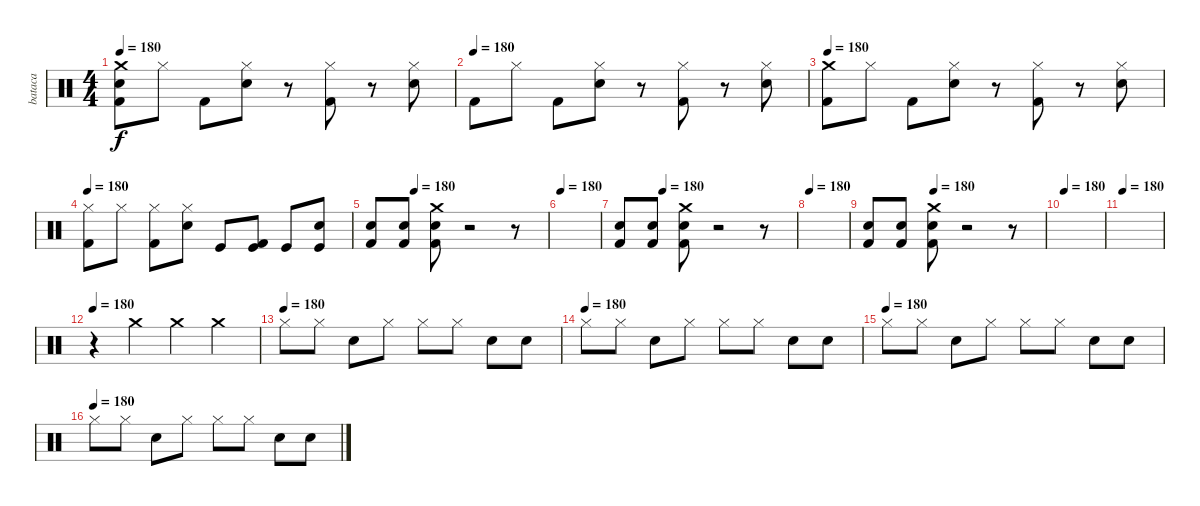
\track ("bataca" "bataca") {instrument percussion}
\staff {score}
\articulation defaults
\ts (4 4)
\tempo 180
\clef neutral
\ks c
("Crash medium (hit)" "Snare (hit) 2" "Kick (hit) 2").8{dy f} "Hi-Hat (closed)".8 "Kick (hit) 2".8 ("Hi-Hat (closed)" "Snare (hit) 2").8 r.8 ("Hi-Hat (closed)" "Kick (hit) 2").8 r.8 ("Hi-Hat (closed)" "Snare (hit) 2").8 |
\tempo (180)
"Kick (hit) 2".8 "Hi-Hat (closed)".8 "Kick (hit) 2".8 ("Hi-Hat (closed)" "Snare (hit) 2").8 r.8 ("Hi-Hat (closed)" "Kick (hit) 2").8 r.8 ("Hi-Hat (closed)" "Snare (hit) 2").8 |
\tempo 180
("Crash medium (hit)" "Kick (hit) 2").8 "Hi-Hat (closed)".8 "Kick (hit) 2".8 ("Hi-Hat (closed)" "Snare (hit) 2").8 r.8 ("Hi-Hat (closed)" "Kick (hit) 2").8 r.8 ("Hi-Hat (closed)" "Snare (hit) 2").8 |
\tempo 180
("Hi-Hat (closed)" "Kick (hit) 2").8 "Hi-Hat (closed)".8 ("Hi-Hat (closed)" "Kick (hit) 2").8 ("Hi-Hat (closed)" "Snare (hit) 2").8 "Kick (hit)".8 ("Kick (hit)" "Kick (hit) 2").8 "Kick (hit)".8 ("Kick (hit)" "Snare (hit) 2").8 |
\tempo (180 0.25)
("Snare (hit) 2" "Kick (hit) 2").8 ("Snare (hit) 2" "Kick (hit) 2").8 ("Crash medium (hit)" "Snare (hit) 2" "Kick (hit) 2").8 r.2 r.8 |
\tempo 180
|
\tempo (180 0.25)
("Snare (hit) 2" "Kick (hit) 2").8 ("Snare (hit) 2" "Kick (hit) 2").8 ("Crash medium (hit)" "Snare (hit) 2" "Kick (hit) 2").8 r.2 r.8 |
\tempo 180
|
\tempo (180 0.375)
("Snare (hit) 2" "Kick (hit) 2").8 ("Snare (hit) 2" "Kick (hit) 2").8 ("Crash medium (hit)" "Snare (hit) 2" "Kick (hit) 2").8 r.2 r.8 |
\tempo 180
|
\tempo 180
|
\tempo 180
r.4 "Crash medium (hit)".4 "Crash medium (hit)".4 "Crash medium (hit)".4 |
\tempo (180)
"Hi-Hat (closed)".8 "Hi-Hat (closed)".8 "Snare (hit) 2".8 "Hi-Hat (closed)".8 "Hi-Hat (closed)".8 "Hi-Hat (closed)".8 "Snare (hit) 2".8 "Snare (hit) 2".8 |
\tempo (180)
"Hi-Hat (closed)".8 "Hi-Hat (closed)".8 "Snare (hit) 2".8 "Hi-Hat (closed)".8 "Hi-Hat (closed)".8 "Hi-Hat (closed)".8 "Snare (hit) 2".8 "Snare (hit) 2".8 |
\tempo (180)
"Hi-Hat (closed)".8 "Hi-Hat (closed)".8 "Snare (hit) 2".8 "Hi-Hat (closed)".8 "Hi-Hat (closed)".8 "Hi-Hat (closed)".8 "Snare (hit) 2".8 "Snare (hit) 2".8 |
\tempo (180)
"Hi-Hat (closed)".8 "Hi-Hat (closed)".8 "Snare (hit) 2".8 "Hi-Hat (closed)".8 "Hi-Hat (closed)".8 "Hi-Hat (closed)".8 "Snare (hit) 2".8 "Snare (hit) 2".8
